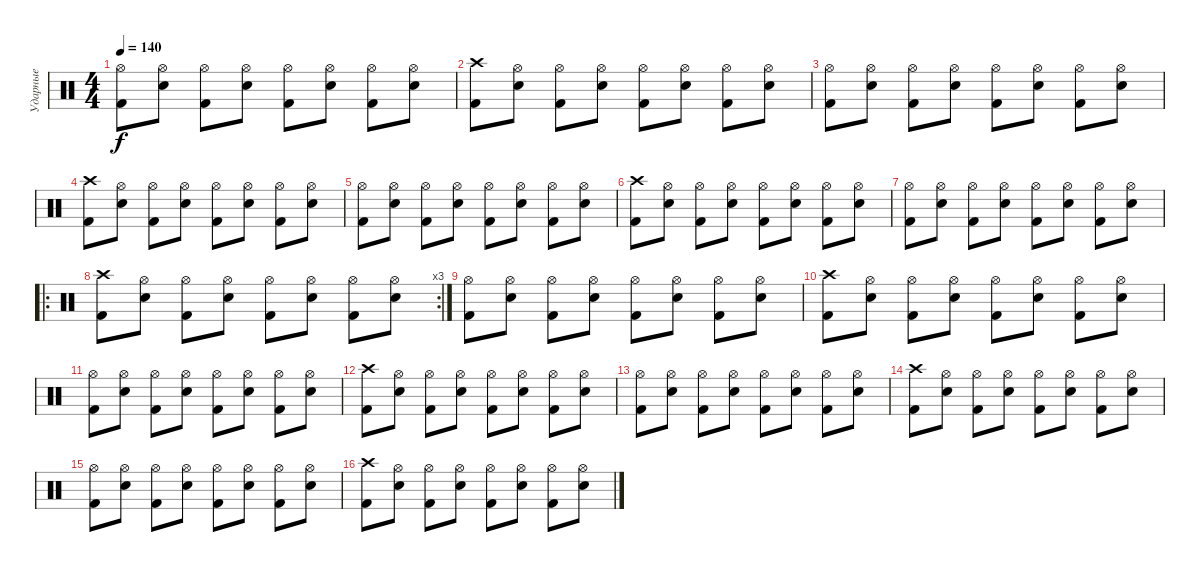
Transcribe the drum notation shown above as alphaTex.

\track ("Ударные" "Ударные") {instrument percussion}
\staff {score}
\articulation defaults
\ts (4 4)
\tempo 140
\clef neutral
\ks c
("Kick (hit) 2" "Hi-Hat (open)").8{dy f} ("Electric Snare (hit)" "Hi-Hat (open)").8 ("Kick (hit) 2" "Hi-Hat (open)").8 ("Electric Snare (hit)" "Hi-Hat (open)").8 ("Kick (hit) 2" "Hi-Hat (open)").8 ("Electric Snare (hit)" "Hi-Hat (open)").8 ("Kick (hit) 2" "Hi-Hat (open)").8 ("Electric Snare (hit)" "Hi-Hat (open)").8 |
("Kick (hit) 2" "Crash high (hit)").8 ("Electric Snare (hit)" "Hi-Hat (open)").8 ("Kick (hit) 2" "Hi-Hat (open)").8 ("Electric Snare (hit)" "Hi-Hat (open)").8 ("Kick (hit) 2" "Hi-Hat (open)").8 ("Electric Snare (hit)" "Hi-Hat (open)").8 ("Kick (hit) 2" "Hi-Hat (open)").8 ("Electric Snare (hit)" "Hi-Hat (open)").8 |
("Kick (hit) 2" "Hi-Hat (open)").8 ("Electric Snare (hit)" "Hi-Hat (open)").8 ("Kick (hit) 2" "Hi-Hat (open)").8 ("Electric Snare (hit)" "Hi-Hat (open)").8 ("Kick (hit) 2" "Hi-Hat (open)").8 ("Electric Snare (hit)" "Hi-Hat (open)").8 ("Kick (hit) 2" "Hi-Hat (open)").8 ("Electric Snare (hit)" "Hi-Hat (open)").8 |
("Kick (hit) 2" "Crash high (hit)").8 ("Electric Snare (hit)" "Hi-Hat (open)").8 ("Kick (hit) 2" "Hi-Hat (open)").8 ("Electric Snare (hit)" "Hi-Hat (open)").8 ("Kick (hit) 2" "Hi-Hat (open)").8 ("Electric Snare (hit)" "Hi-Hat (open)").8 ("Kick (hit) 2" "Hi-Hat (open)").8 ("Electric Snare (hit)" "Hi-Hat (open)").8 |
("Kick (hit) 2" "Hi-Hat (open)").8 ("Electric Snare (hit)" "Hi-Hat (open)").8 ("Kick (hit) 2" "Hi-Hat (open)").8 ("Electric Snare (hit)" "Hi-Hat (open)").8 ("Kick (hit) 2" "Hi-Hat (open)").8 ("Electric Snare (hit)" "Hi-Hat (open)").8 ("Kick (hit) 2" "Hi-Hat (open)").8 ("Electric Snare (hit)" "Hi-Hat (open)").8 |
("Kick (hit) 2" "Crash high (hit)").8 ("Electric Snare (hit)" "Hi-Hat (open)").8 ("Kick (hit) 2" "Hi-Hat (open)").8 ("Electric Snare (hit)" "Hi-Hat (open)").8 ("Kick (hit) 2" "Hi-Hat (open)").8 ("Electric Snare (hit)" "Hi-Hat (open)").8 ("Kick (hit) 2" "Hi-Hat (open)").8 ("Electric Snare (hit)" "Hi-Hat (open)").8 |
("Kick (hit) 2" "Hi-Hat (open)").8 ("Electric Snare (hit)" "Hi-Hat (open)").8 ("Kick (hit) 2" "Hi-Hat (open)").8 ("Electric Snare (hit)" "Hi-Hat (open)").8 ("Kick (hit) 2" "Hi-Hat (open)").8 ("Electric Snare (hit)" "Hi-Hat (open)").8 ("Kick (hit) 2" "Hi-Hat (open)").8 ("Electric Snare (hit)" "Hi-Hat (open)").8 |
\ro
\rc 3
("Kick (hit) 2" "Crash high (hit)").8 ("Electric Snare (hit)" "Hi-Hat (open)").8 ("Kick (hit) 2" "Hi-Hat (open)").8 ("Electric Snare (hit)" "Hi-Hat (open)").8 ("Kick (hit) 2" "Hi-Hat (open)").8 ("Electric Snare (hit)" "Hi-Hat (open)").8 ("Kick (hit) 2" "Hi-Hat (open)").8 ("Electric Snare (hit)" "Hi-Hat (open)").8 |
("Kick (hit) 2" "Hi-Hat (open)").8 ("Electric Snare (hit)" "Hi-Hat (open)").8 ("Kick (hit) 2" "Hi-Hat (open)").8 ("Electric Snare (hit)" "Hi-Hat (open)").8 ("Kick (hit) 2" "Hi-Hat (open)").8 ("Electric Snare (hit)" "Hi-Hat (open)").8 ("Kick (hit) 2" "Hi-Hat (open)").8 ("Electric Snare (hit)" "Hi-Hat (open)").8 |
("Kick (hit) 2" "Crash high (hit)").8 ("Electric Snare (hit)" "Hi-Hat (open)").8 ("Kick (hit) 2" "Hi-Hat (open)").8 ("Electric Snare (hit)" "Hi-Hat (open)").8 ("Kick (hit) 2" "Hi-Hat (open)").8 ("Electric Snare (hit)" "Hi-Hat (open)").8 ("Kick (hit) 2" "Hi-Hat (open)").8 ("Electric Snare (hit)" "Hi-Hat (open)").8 |
("Kick (hit) 2" "Hi-Hat (open)").8 ("Electric Snare (hit)" "Hi-Hat (open)").8 ("Kick (hit) 2" "Hi-Hat (open)").8 ("Electric Snare (hit)" "Hi-Hat (open)").8 ("Kick (hit) 2" "Hi-Hat (open)").8 ("Electric Snare (hit)" "Hi-Hat (open)").8 ("Kick (hit) 2" "Hi-Hat (open)").8 ("Electric Snare (hit)" "Hi-Hat (open)").8 |
("Kick (hit) 2" "Crash high (hit)").8 ("Electric Snare (hit)" "Hi-Hat (open)").8 ("Kick (hit) 2" "Hi-Hat (open)").8 ("Electric Snare (hit)" "Hi-Hat (open)").8 ("Kick (hit) 2" "Hi-Hat (open)").8 ("Electric Snare (hit)" "Hi-Hat (open)").8 ("Kick (hit) 2" "Hi-Hat (open)").8 ("Electric Snare (hit)" "Hi-Hat (open)").8 |
("Kick (hit) 2" "Hi-Hat (open)").8 ("Electric Snare (hit)" "Hi-Hat (open)").8 ("Kick (hit) 2" "Hi-Hat (open)").8 ("Electric Snare (hit)" "Hi-Hat (open)").8 ("Kick (hit) 2" "Hi-Hat (open)").8 ("Electric Snare (hit)" "Hi-Hat (open)").8 ("Kick (hit) 2" "Hi-Hat (open)").8 ("Electric Snare (hit)" "Hi-Hat (open)").8 |
("Kick (hit) 2" "Crash high (hit)").8 ("Electric Snare (hit)" "Hi-Hat (open)").8 ("Kick (hit) 2" "Hi-Hat (open)").8 ("Electric Snare (hit)" "Hi-Hat (open)").8 ("Kick (hit) 2" "Hi-Hat (open)").8 ("Electric Snare (hit)" "Hi-Hat (open)").8 ("Kick (hit) 2" "Hi-Hat (open)").8 ("Electric Snare (hit)" "Hi-Hat (open)").8 |
("Kick (hit) 2" "Hi-Hat (open)").8 ("Electric Snare (hit)" "Hi-Hat (open)").8 ("Kick (hit) 2" "Hi-Hat (open)").8 ("Electric Snare (hit)" "Hi-Hat (open)").8 ("Kick (hit) 2" "Hi-Hat (open)").8 ("Electric Snare (hit)" "Hi-Hat (open)").8 ("Kick (hit) 2" "Hi-Hat (open)").8 ("Electric Snare (hit)" "Hi-Hat (open)").8 |
("Kick (hit) 2" "Crash high (hit)").8 ("Electric Snare (hit)" "Hi-Hat (open)").8 ("Kick (hit) 2" "Hi-Hat (open)").8 ("Electric Snare (hit)" "Hi-Hat (open)").8 ("Kick (hit) 2" "Hi-Hat (open)").8 ("Electric Snare (hit)" "Hi-Hat (open)").8 ("Kick (hit) 2" "Hi-Hat (open)").8 ("Electric Snare (hit)" "Hi-Hat (open)").8
